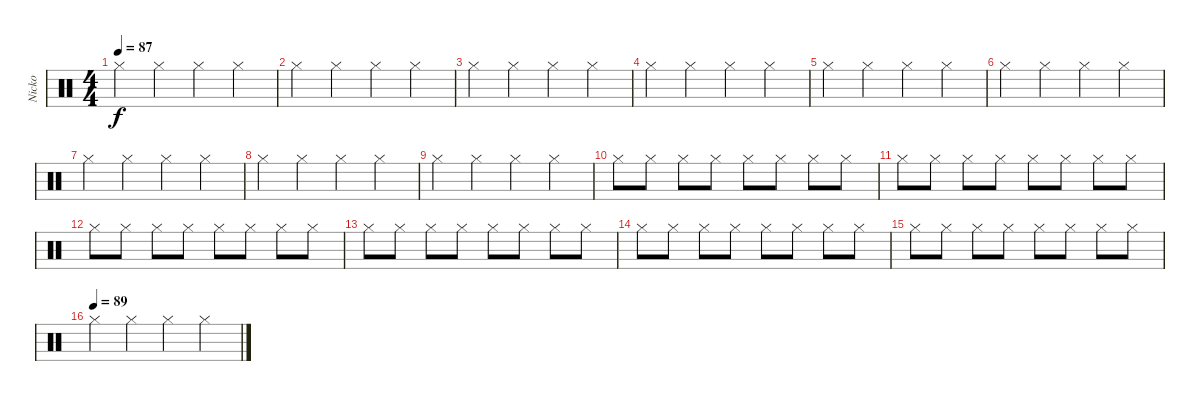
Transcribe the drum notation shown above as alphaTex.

\track ("Nicko " "Nicko ") {instrument percussion}
\staff {score}
\articulation defaults
\ts (4 4)
\tempo 87
\clef neutral
\ks c "Hi-Hat (closed)".4{dy f} "Hi-Hat (closed)".4 "Hi-Hat (closed)".4 "Hi-Hat (closed)".4
|
"Hi-Hat (closed)".4 "Hi-Hat (closed)".4 "Hi-Hat (closed)".4 "Hi-Hat (closed)".4 |
"Hi-Hat (closed)".4 "Hi-Hat (closed)".4 "Hi-Hat (closed)".4 "Hi-Hat (closed)".4 |
"Hi-Hat (closed)".4 "Hi-Hat (closed)".4 "Hi-Hat (closed)".4 "Hi-Hat (closed)".4 |
"Hi-Hat (closed)".4 "Hi-Hat (closed)".4 "Hi-Hat (closed)".4 "Hi-Hat (closed)".4 |
"Hi-Hat (closed)".4 "Hi-Hat (closed)".4 "Hi-Hat (closed)".4 "Hi-Hat (closed)".4 |
"Hi-Hat (closed)".4 "Hi-Hat (closed)".4 "Hi-Hat (closed)".4 "Hi-Hat (closed)".4 |
"Hi-Hat (closed)".4 "Hi-Hat (closed)".4 "Hi-Hat (closed)".4 "Hi-Hat (closed)".4 |
"Hi-Hat (closed)".4 "Hi-Hat (closed)".4 "Hi-Hat (closed)".4 "Hi-Hat (closed)".4 |
"Hi-Hat (closed)".8 "Hi-Hat (closed)".8 "Hi-Hat (closed)".8 "Hi-Hat (closed)".8 "Hi-Hat (closed)".8 "Hi-Hat (closed)".8 "Hi-Hat (closed)".8 "Hi-Hat (closed)".8 |
"Hi-Hat (closed)".8 "Hi-Hat (closed)".8 "Hi-Hat (closed)".8 "Hi-Hat (closed)".8 "Hi-Hat (closed)".8 "Hi-Hat (closed)".8 "Hi-Hat (closed)".8 "Hi-Hat (closed)".8 |
"Hi-Hat (closed)".8 "Hi-Hat (closed)".8 "Hi-Hat (closed)".8 "Hi-Hat (closed)".8 "Hi-Hat (closed)".8 "Hi-Hat (closed)".8 "Hi-Hat (closed)".8 "Hi-Hat (closed)".8 |
"Hi-Hat (closed)".8 "Hi-Hat (closed)".8 "Hi-Hat (closed)".8 "Hi-Hat (closed)".8 "Hi-Hat (closed)".8 "Hi-Hat (closed)".8 "Hi-Hat (closed)".8 "Hi-Hat (closed)".8 |
"Hi-Hat (closed)".8 "Hi-Hat (closed)".8 "Hi-Hat (closed)".8 "Hi-Hat (closed)".8 "Hi-Hat (closed)".8 "Hi-Hat (closed)".8 "Hi-Hat (closed)".8 "Hi-Hat (closed)".8 |
"Hi-Hat (closed)".8 "Hi-Hat (closed)".8 "Hi-Hat (closed)".8 "Hi-Hat (closed)".8 "Hi-Hat (closed)".8 "Hi-Hat (closed)".8 "Hi-Hat (closed)".8 "Hi-Hat (closed)".8 |
\tempo (89)
"Hi-Hat (closed)".4 "Hi-Hat (closed)".4 "Hi-Hat (closed)".4 "Hi-Hat (closed)".4
